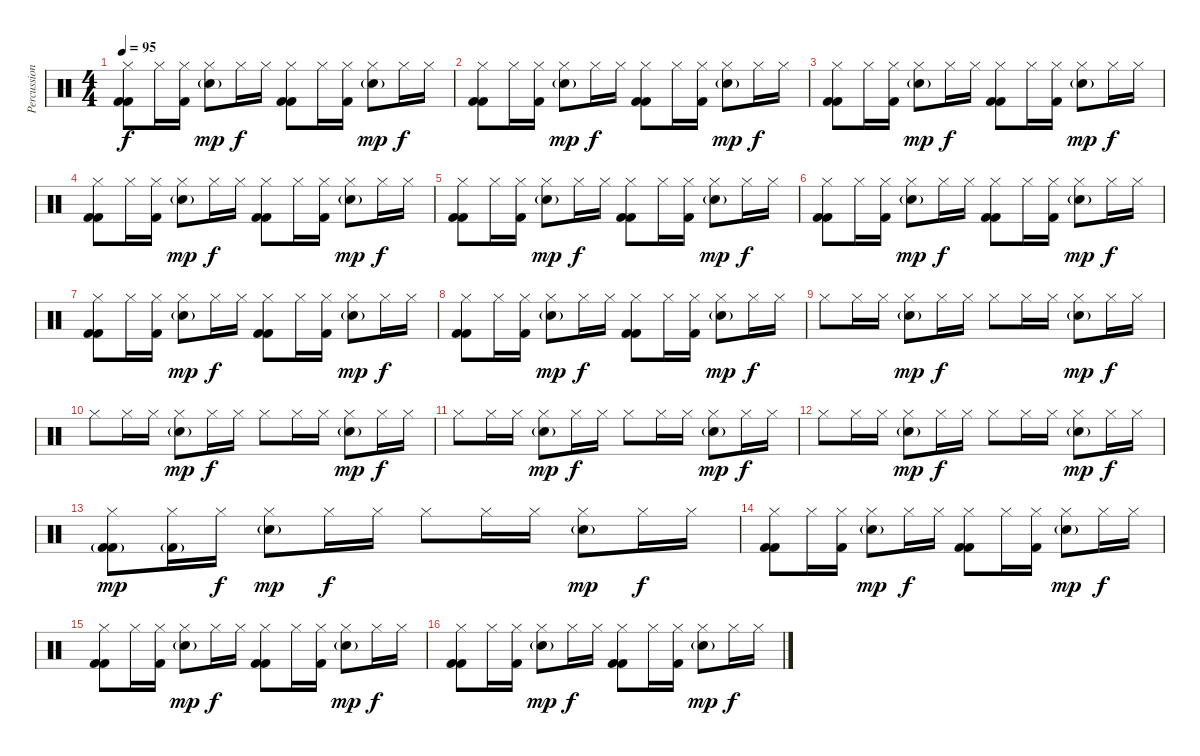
\track ("Percussion" "Percussion") {instrument percussion}
\staff {score}
\articulation defaults
\ts (4 4)
\tempo 95
\clef neutral
\ks c
("Kick (hit) 2" "Kick (hit) 2" "Hi-Hat (closed)").8{dy f} "Hi-Hat (closed)".16 ("Kick (hit) 2" "Hi-Hat (closed)").16 ("Snare (hit) 2"{g} "Hi-Hat (closed)").8{dy mp} "Hi-Hat (closed)".16{dy f} "Hi-Hat (closed)".16 ("Kick (hit) 2" "Kick (hit) 2" "Hi-Hat (closed)").8 "Hi-Hat (closed)".16 ("Kick (hit) 2" "Hi-Hat (closed)").16 ("Snare (hit) 2"{g} "Hi-Hat (closed)").8{dy mp} "Hi-Hat (closed)".16{dy f} "Hi-Hat (closed)".16 |
("Kick (hit) 2" "Kick (hit) 2" "Hi-Hat (closed)").8 "Hi-Hat (closed)".16 ("Kick (hit) 2" "Hi-Hat (closed)").16 ("Snare (hit) 2"{g} "Hi-Hat (closed)").8{dy mp} "Hi-Hat (closed)".16{dy f} "Hi-Hat (closed)".16 ("Kick (hit) 2" "Kick (hit) 2" "Hi-Hat (closed)").8 "Hi-Hat (closed)".16 ("Kick (hit) 2" "Hi-Hat (closed)").16 ("Snare (hit) 2"{g} "Hi-Hat (closed)").8{dy mp} "Hi-Hat (closed)".16{dy f} "Hi-Hat (closed)".16 |
("Kick (hit) 2" "Kick (hit) 2" "Hi-Hat (closed)").8 "Hi-Hat (closed)".16 ("Kick (hit) 2" "Hi-Hat (closed)").16 ("Snare (hit) 2"{g} "Hi-Hat (closed)").8{dy mp} "Hi-Hat (closed)".16{dy f} "Hi-Hat (closed)".16 ("Kick (hit) 2" "Kick (hit) 2" "Hi-Hat (closed)").8 "Hi-Hat (closed)".16 ("Kick (hit) 2" "Hi-Hat (closed)").16 ("Snare (hit) 2"{g} "Hi-Hat (closed)").8{dy mp} "Hi-Hat (closed)".16{dy f} "Hi-Hat (closed)".16 |
("Kick (hit) 2" "Kick (hit) 2" "Hi-Hat (closed)").8 "Hi-Hat (closed)".16 ("Kick (hit) 2" "Hi-Hat (closed)").16 ("Snare (hit) 2"{g} "Hi-Hat (closed)").8{dy mp} "Hi-Hat (closed)".16{dy f} "Hi-Hat (closed)".16 ("Kick (hit) 2" "Kick (hit) 2" "Hi-Hat (closed)").8 "Hi-Hat (closed)".16 ("Kick (hit) 2" "Hi-Hat (closed)").16 ("Snare (hit) 2"{g} "Hi-Hat (closed)").8{dy mp} "Hi-Hat (closed)".16{dy f} "Hi-Hat (closed)".16 |
("Kick (hit) 2" "Kick (hit) 2" "Hi-Hat (closed)").8 "Hi-Hat (closed)".16 ("Kick (hit) 2" "Hi-Hat (closed)").16 ("Snare (hit) 2"{g} "Hi-Hat (closed)").8{dy mp} "Hi-Hat (closed)".16{dy f} "Hi-Hat (closed)".16 ("Kick (hit) 2" "Kick (hit) 2" "Hi-Hat (closed)").8 "Hi-Hat (closed)".16 ("Kick (hit) 2" "Hi-Hat (closed)").16 ("Snare (hit) 2"{g} "Hi-Hat (closed)").8{dy mp} "Hi-Hat (closed)".16{dy f} "Hi-Hat (closed)".16 |
("Kick (hit) 2" "Kick (hit) 2" "Hi-Hat (closed)").8 "Hi-Hat (closed)".16 ("Kick (hit) 2" "Hi-Hat (closed)").16 ("Snare (hit) 2"{g} "Hi-Hat (closed)").8{dy mp} "Hi-Hat (closed)".16{dy f} "Hi-Hat (closed)".16 ("Kick (hit) 2" "Kick (hit) 2" "Hi-Hat (closed)").8 "Hi-Hat (closed)".16 ("Kick (hit) 2" "Hi-Hat (closed)").16 ("Snare (hit) 2"{g} "Hi-Hat (closed)").8{dy mp} "Hi-Hat (closed)".16{dy f} "Hi-Hat (closed)".16 |
("Kick (hit) 2" "Kick (hit) 2" "Hi-Hat (closed)").8 "Hi-Hat (closed)".16 ("Kick (hit) 2" "Hi-Hat (closed)").16 ("Snare (hit) 2"{g} "Hi-Hat (closed)").8{dy mp} "Hi-Hat (closed)".16{dy f} "Hi-Hat (closed)".16 ("Kick (hit) 2" "Kick (hit) 2" "Hi-Hat (closed)").8 "Hi-Hat (closed)".16 ("Kick (hit) 2" "Hi-Hat (closed)").16 ("Snare (hit) 2"{g} "Hi-Hat (closed)").8{dy mp} "Hi-Hat (closed)".16{dy f} "Hi-Hat (closed)".16 |
("Kick (hit) 2" "Kick (hit) 2" "Hi-Hat (closed)").8 "Hi-Hat (closed)".16 ("Kick (hit) 2" "Hi-Hat (closed)").16 ("Snare (hit) 2"{g} "Hi-Hat (closed)").8{dy mp} "Hi-Hat (closed)".16{dy f} "Hi-Hat (closed)".16 ("Kick (hit) 2" "Kick (hit) 2" "Hi-Hat (closed)").8 "Hi-Hat (closed)".16 ("Kick (hit) 2" "Hi-Hat (closed)").16 ("Snare (hit) 2"{g} "Hi-Hat (closed)").8{dy mp} "Hi-Hat (closed)".16{dy f} "Hi-Hat (closed)".16 |
"Hi-Hat (closed)".8 "Hi-Hat (closed)".16 "Hi-Hat (closed)".16 ("Snare (hit) 2"{g} "Hi-Hat (closed)").8{dy mp} "Hi-Hat (closed)".16{dy f} "Hi-Hat (closed)".16 "Hi-Hat (closed)".8 "Hi-Hat (closed)".16 "Hi-Hat (closed)".16 ("Snare (hit) 2"{g} "Hi-Hat (closed)").8{dy mp} "Hi-Hat (closed)".16{dy f} "Hi-Hat (closed)".16 |
"Hi-Hat (closed)".8 "Hi-Hat (closed)".16 "Hi-Hat (closed)".16 ("Snare (hit) 2"{g} "Hi-Hat (closed)").8{dy mp} "Hi-Hat (closed)".16{dy f} "Hi-Hat (closed)".16 "Hi-Hat (closed)".8 "Hi-Hat (closed)".16 "Hi-Hat (closed)".16 ("Snare (hit) 2"{g} "Hi-Hat (closed)").8{dy mp} "Hi-Hat (closed)".16{dy f} "Hi-Hat (closed)".16 |
"Hi-Hat (closed)".8 "Hi-Hat (closed)".16 "Hi-Hat (closed)".16 ("Snare (hit) 2"{g} "Hi-Hat (closed)").8{dy mp} "Hi-Hat (closed)".16{dy f} "Hi-Hat (closed)".16 "Hi-Hat (closed)".8 "Hi-Hat (closed)".16 "Hi-Hat (closed)".16 ("Snare (hit) 2"{g} "Hi-Hat (closed)").8{dy mp} "Hi-Hat (closed)".16{dy f} "Hi-Hat (closed)".16 |
"Hi-Hat (closed)".8 "Hi-Hat (closed)".16 "Hi-Hat (closed)".16 ("Snare (hit) 2"{g} "Hi-Hat (closed)").8{dy mp} "Hi-Hat (closed)".16{dy f} "Hi-Hat (closed)".16 "Hi-Hat (closed)".8 "Hi-Hat (closed)".16 "Hi-Hat (closed)".16 ("Snare (hit) 2"{g} "Hi-Hat (closed)").8{dy mp} "Hi-Hat (closed)".16{dy f} "Hi-Hat (closed)".16 |
("Kick (hit) 2"{g} "Kick (hit) 2"{g} "Hi-Hat (closed)").8{dy mp} ("Kick (hit) 2"{g} "Hi-Hat (closed)").16 "Hi-Hat (closed)".16{dy f} ("Snare (hit) 2"{g} "Hi-Hat (closed)").8{dy mp} "Hi-Hat (closed)".16{dy f} "Hi-Hat (closed)".16 "Hi-Hat (closed)".8 "Hi-Hat (closed)".16 "Hi-Hat (closed)".16 ("Snare (hit) 2"{g} "Hi-Hat (closed)").8{dy mp} "Hi-Hat (closed)".16{dy f} "Hi-Hat (closed)".16 |
("Kick (hit) 2" "Kick (hit) 2" "Hi-Hat (closed)").8 "Hi-Hat (closed)".16 ("Kick (hit) 2" "Hi-Hat (closed)").16 ("Snare (hit) 2"{g} "Hi-Hat (closed)").8{dy mp} "Hi-Hat (closed)".16{dy f} "Hi-Hat (closed)".16 ("Kick (hit) 2" "Kick (hit) 2" "Hi-Hat (closed)").8 "Hi-Hat (closed)".16 ("Kick (hit) 2" "Hi-Hat (closed)").16 ("Snare (hit) 2"{g} "Hi-Hat (closed)").8{dy mp} "Hi-Hat (closed)".16{dy f} "Hi-Hat (closed)".16 |
("Kick (hit) 2" "Kick (hit) 2" "Hi-Hat (closed)").8 "Hi-Hat (closed)".16 ("Kick (hit) 2" "Hi-Hat (closed)").16 ("Snare (hit) 2"{g} "Hi-Hat (closed)").8{dy mp} "Hi-Hat (closed)".16{dy f} "Hi-Hat (closed)".16 ("Kick (hit) 2" "Kick (hit) 2" "Hi-Hat (closed)").8 "Hi-Hat (closed)".16 ("Kick (hit) 2" "Hi-Hat (closed)").16 ("Snare (hit) 2"{g} "Hi-Hat (closed)").8{dy mp} "Hi-Hat (closed)".16{dy f} "Hi-Hat (closed)".16 |
("Kick (hit) 2" "Kick (hit) 2" "Hi-Hat (closed)").8 "Hi-Hat (closed)".16 ("Kick (hit) 2" "Hi-Hat (closed)").16 ("Snare (hit) 2"{g} "Hi-Hat (closed)").8{dy mp} "Hi-Hat (closed)".16{dy f} "Hi-Hat (closed)".16 ("Kick (hit) 2" "Kick (hit) 2" "Hi-Hat (closed)").8 "Hi-Hat (closed)".16 ("Kick (hit) 2" "Hi-Hat (closed)").16 ("Snare (hit) 2"{g} "Hi-Hat (closed)").8{dy mp} "Hi-Hat (closed)".16{dy f} "Hi-Hat (closed)".16
